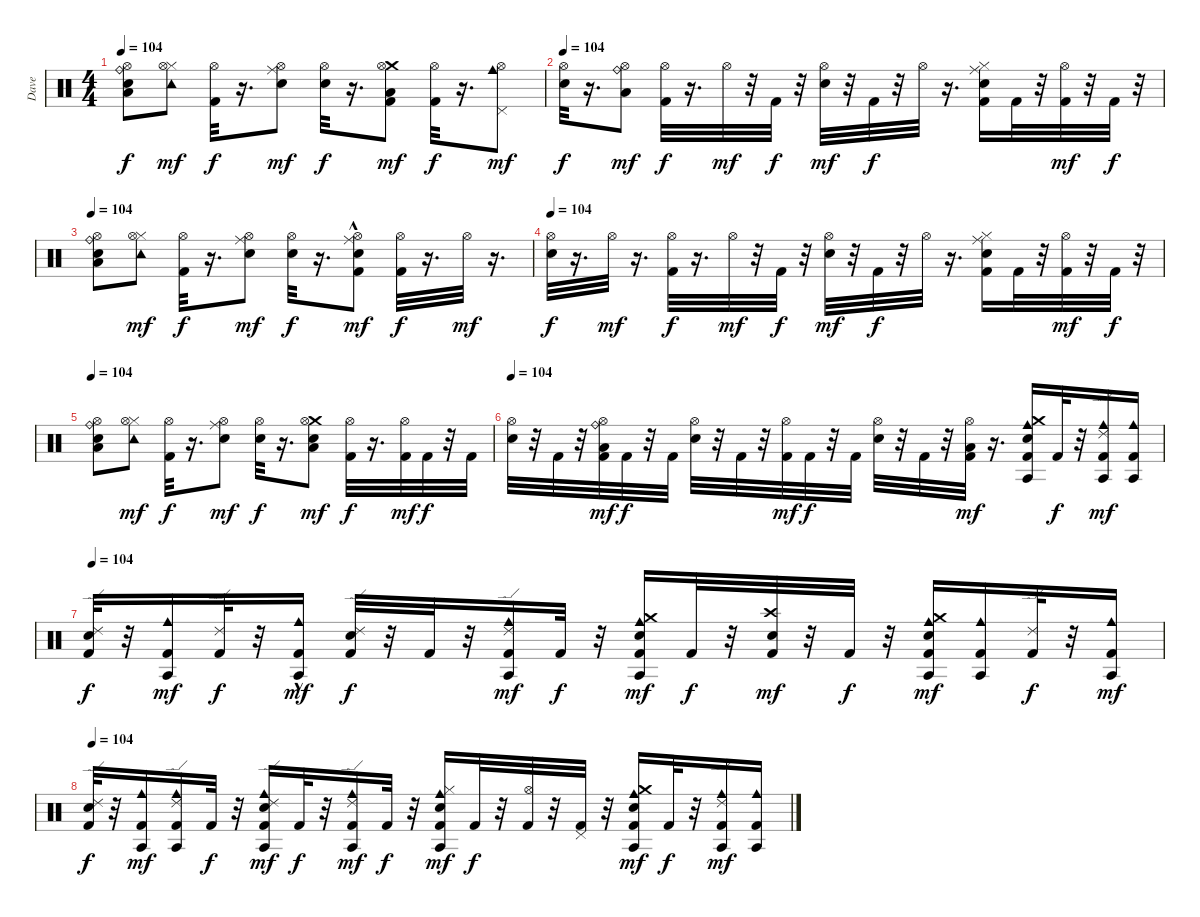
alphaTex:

\track ("Dave" "Dave") {instrument percussion}
\staff {score}
\articulation defaults
\ts (4 4)
\tempo 104
\clef neutral
\ks c
("Low Floor Tom (hit)" "Ride (bell)" "Snare (hit) 2" "Hi-Hat (open)").8{dy f} ("Hi-Hat (closed)" "Tambourine (hit)" "Hi-Hat (open)").8{dy mf} ("Kick (hit) 2" "Hi-Hat (open)").32{dy f} r.16{d} ("Hand Clap (hit)" "Ride (middle)" "Hi-Hat (open)").8{dy mf} ("Snare (hit) 2" "Hi-Hat (open)").32{dy f} r.16{d} ("Low Tom (hit)" "Crash medium (hit)" "Kick (hit) 2" "Hi-Hat (open)").8{dy mf} ("Kick (hit) 2" "Hi-Hat (open)").32{dy f} r.16{d} ("Pedal Hi-Hat (hit)" "Cowbell medium (hit)" "Hi-Hat (open)").8{dy mf} |
\tempo 104
("Snare (hit) 2" "Hi-Hat (open)").32{dy f} r.16{d} ("Low Floor Tom (hit)" "Ride (bell)" "Hi-Hat (open)").8{dy mf} ("Kick (hit) 2" "Hi-Hat (open)").32{dy f} r.16{d} "Hi-Hat (open)".32{dy mf} r.32 "Kick (hit) 2".32{dy f} r.32 ("Snare (hit) 2" "Hi-Hat (open)").32{dy mf} r.32 "Kick (hit) 2".32{dy f} r.32 "Hi-Hat (open)".32 r.16{d} ("Hand Clap (hit)" "Ride (middle)" "Kick (hit) 2" "Hi-Hat (closed)").16 "Kick (hit) 2".32 r.32 ("Kick (hit) 2" "Hi-Hat (open)").32{dy mf} r.32 "Kick (hit) 2".32{dy f} r.32 |
\tempo 104
("Low Floor Tom (hit)" "Ride (bell)" "Snare (hit) 2" "Hi-Hat (open)").8 ("Hi-Hat (closed)" "Tambourine (hit)" "Hi-Hat (open)").8{dy mf} ("Kick (hit) 2" "Hi-Hat (open)").32{dy f} r.16{d} ("Hand Clap (hit)" "Ride (middle)" "Hi-Hat (open)").8{dy mf} ("Snare (hit) 2" "Hi-Hat (open)").32{dy f} r.16{d} ("Hand Clap (hit)"{hac} "Ride (middle)"{hac} "Kick (hit) 2" "Hi-Hat (open)").8{dy mf} ("Kick (hit) 2" "Hi-Hat (open)").32{dy f} r.16{d} "Hi-Hat (open)".32{dy mf} r.16{d} |
\tempo 104
("Snare (hit) 2" "Hi-Hat (open)").32{dy f} r.16{d} "Hi-Hat (open)".32{dy mf} r.16{d} ("Kick (hit) 2" "Hi-Hat (open)").32{dy f} r.16{d} "Hi-Hat (open)".32{dy mf} r.32 "Kick (hit) 2".32{dy f} r.32 ("Snare (hit) 2" "Hi-Hat (open)").32{dy mf} r.32 "Kick (hit) 2".32{dy f} r.32 "Hi-Hat (open)".32 r.16{d} ("Hand Clap (hit)" "Ride (middle)" "Kick (hit) 2" "Hi-Hat (closed)").16 "Kick (hit) 2".32 r.32 ("Kick (hit) 2" "Hi-Hat (open)").32{dy mf} r.32 "Kick (hit) 2".32{dy f} r.32 |
\tempo 104
("Low Floor Tom (hit)" "Ride (bell)" "Snare (hit) 2" "Hi-Hat (open)").8 ("Hi-Hat (closed)" "Tambourine (hit)" "Hi-Hat (open)").8{dy mf} ("Kick (hit) 2" "Hi-Hat (open)").32{dy f} r.16{d} ("Hand Clap (hit)" "Ride (middle)" "Hi-Hat (open)").8{dy mf} ("Snare (hit) 2" "Hi-Hat (open)").32{dy f} r.16{d} ("Low Tom (hit)" "Crash medium (hit)" "Snare (hit) 2" "Hi-Hat (open)").8{dy mf} ("Kick (hit) 2" "Hi-Hat (open)").32{dy f} r.16{d} ("Kick (hit) 2" "Hi-Hat (open)").32{dy mf} "Kick (hit) 2".32{dy f} r.32 "Kick (hit) 2".32 |
\tempo 104
("Snare (hit) 2" "Hi-Hat (open)").32 r.32 "Kick (hit) 2".32 r.32 ("Low Floor Tom (hit)" "Ride (bell)" "Kick (hit) 2" "Hi-Hat (open)").32{dy mf} "Kick (hit) 2".32{dy f} r.32 "Kick (hit) 2".32 ("Snare (hit) 2" "Hi-Hat (open)").32 r.32 "Kick (hit) 2".32 r.32 ("Kick (hit) 2" "Hi-Hat (open)").32{dy mf} "Kick (hit) 2".32{dy f} r.32 "Kick (hit) 2".32 ("Snare (hit) 2" "Hi-Hat (open)").32 r.32 "Kick (hit) 2".32 r.32 ("Kick (hit) 2" "Low Floor Tom (hit)" "Hi-Hat (open)").32{dy mf} r.16{d} ("Cowbell medium (hit)" "Agogo tow (hit)" "Kick (hit) 2" "Snare (hit) 2" "Crash medium (hit)").16 "Kick (hit) 2".32{dy f} r.32 ("Cowbell medium (hit)" "Agogo tow (hit)" "Kick (hit) 2" "Ride (edge) 2").16{dy mf} ("Cowbell medium (hit)" "Agogo tow (hit)" "Kick (hit) 2").16 |
\tempo 104
("Kick (hit) 2" "Snare (hit) 2" "Ride (edge) 2").32{dy f} r.32 ("Cowbell medium (hit)" "Agogo tow (hit)" "Kick (hit) 2").16{dy mf} ("Kick (hit) 2" "Ride (edge) 2").32{dy f} r.32 ("Cowbell medium (hit)"{hac} "Agogo tow (hit)"{hac} "Kick (hit) 2").16{dy mf} ("Kick (hit) 2" "Snare (hit) 2" "Ride (edge) 2").32{dy f} r.32 "Kick (hit) 2".32 r.32 ("Cowbell medium (hit)" "Agogo tow (hit)" "Kick (hit) 2" "Ride (edge) 2").16{dy mf} "Kick (hit) 2".32{dy f} r.32 ("Cowbell medium (hit)" "Agogo tow (hit)" "Kick (hit) 2" "Snare (hit) 2" "Crash medium (hit)").16{dy mf} "Kick (hit) 2".32{dy f} r.32 ("Kick (hit) 2" "Snare (hit) 2" "Crash high (hit)").32{dy mf} r.32 "Kick (hit) 2".32{dy f} r.32 ("Cowbell medium (hit)" "Agogo tow (hit)" "Kick (hit) 2" "Snare (hit) 2" "Crash medium (hit)").16{dy mf} ("Cowbell medium (hit)" "Agogo tow (hit)" "Kick (hit) 2").16 ("Kick (hit) 2" "Ride (edge) 2").32{dy f} r.32 ("Cowbell medium (hit)" "Agogo tow (hit)" "Kick (hit) 2").16{dy mf} |
\tempo 104
("Kick (hit) 2" "Snare (hit) 2" "Ride (edge) 2").32{dy f} r.32 ("Cowbell medium (hit)" "Agogo tow (hit)" "Kick (hit) 2").16{dy mf} ("Cowbell medium (hit)" "Agogo tow (hit)" "Kick (hit) 2" "Ride (edge) 2").16 "Kick (hit) 2".32{dy f} r.32 ("Cowbell medium (hit)" "Agogo tow (hit)" "Kick (hit) 2" "Snare (hit) 2" "Ride (edge) 2").16{dy mf} "Kick (hit) 2".32{dy f} r.32 ("Cowbell medium (hit)" "Agogo tow (hit)" "Kick (hit) 2" "Ride (edge) 2").16{dy mf} "Kick (hit) 2".32{dy f} r.32 ("Cowbell medium (hit)" "Agogo tow (hit)" "Kick (hit) 2" "Snare (hit) 2" "Hi-Hat (closed)").16{dy mf} "Kick (hit) 2".32{dy f} r.32 ("Kick (hit) 2" "Hi-Hat (open)").32 r.32 ("Kick (hit) 2" "Pedal Hi-Hat (hit)").32 r.32 ("Cowbell medium (hit)" "Agogo tow (hit)" "Kick (hit) 2" "Snare (hit) 2" "Crash medium (hit)").16{dy mf} "Kick (hit) 2".32{dy f} r.32 ("Cowbell medium (hit)" "Agogo tow (hit)" "Kick (hit) 2" "Ride (edge) 2").16{dy mf} ("Cowbell medium (hit)" "Agogo tow (hit)" "Kick (hit) 2").16
